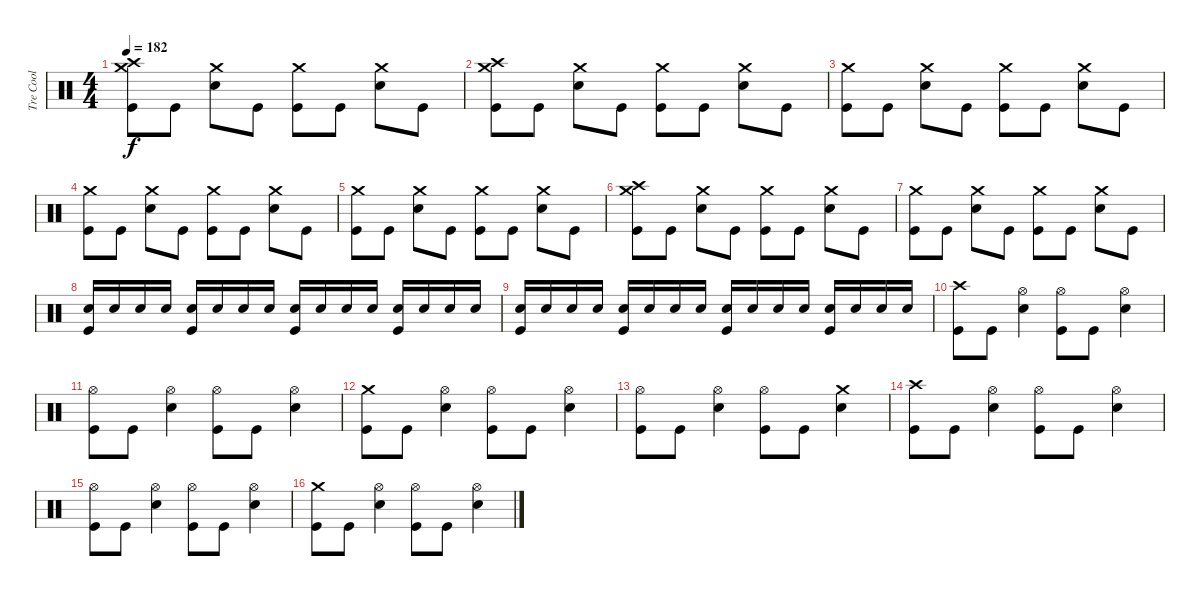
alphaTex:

\track ("Tre Cool" "Tre Cool") {instrument percussion}
\staff {score}
\articulation defaults
\ts (4 4)
\tempo 182
\clef neutral
\ks c
("Crash medium (hit)" "Crash high (hit)" "Kick (hit)").8{dy f} "Kick (hit)".8 ("Crash medium (hit)" "Snare (hit) 2").8 "Kick (hit)".8 ("Crash medium (hit)" "Kick (hit)").8 "Kick (hit)".8 ("Crash medium (hit)" "Snare (hit) 2").8 "Kick (hit)".8 |
("Crash medium (hit)" "Crash high (hit)" "Kick (hit)").8 "Kick (hit)".8 ("Crash medium (hit)" "Snare (hit) 2").8 "Kick (hit)".8 ("Crash medium (hit)" "Kick (hit)").8 "Kick (hit)".8 ("Crash medium (hit)" "Snare (hit) 2").8 "Kick (hit)".8 |
("Crash medium (hit)" "Kick (hit)").8 "Kick (hit)".8 ("Crash medium (hit)" "Snare (hit) 2").8 "Kick (hit)".8 ("Crash medium (hit)" "Kick (hit)").8 "Kick (hit)".8 ("Crash medium (hit)" "Snare (hit) 2").8 "Kick (hit)".8 |
("Crash medium (hit)" "Kick (hit)").8 "Kick (hit)".8 ("Crash medium (hit)" "Snare (hit) 2").8 "Kick (hit)".8 ("Crash medium (hit)" "Kick (hit)").8 "Kick (hit)".8 ("Crash medium (hit)" "Snare (hit) 2").8 "Kick (hit)".8 |
("Crash medium (hit)" "Kick (hit)").8 "Kick (hit)".8 ("Crash medium (hit)" "Snare (hit) 2").8 "Kick (hit)".8 ("Crash medium (hit)" "Kick (hit)").8 "Kick (hit)".8 ("Crash medium (hit)" "Snare (hit) 2").8 "Kick (hit)".8 |
("Crash medium (hit)" "Crash high (hit)" "Kick (hit)").8 "Kick (hit)".8 ("Crash medium (hit)" "Snare (hit) 2").8 "Kick (hit)".8 ("Crash medium (hit)" "Kick (hit)").8 "Kick (hit)".8 ("Crash medium (hit)" "Snare (hit) 2").8 "Kick (hit)".8 |
("Crash medium (hit)" "Kick (hit)").8 "Kick (hit)".8 ("Crash medium (hit)" "Snare (hit) 2").8 "Kick (hit)".8 ("Crash medium (hit)" "Kick (hit)").8 "Kick (hit)".8 ("Crash medium (hit)" "Snare (hit) 2").8 "Kick (hit)".8 |
("Snare (hit) 2" "Kick (hit)").16 "Snare (hit) 2".16 "Snare (hit) 2".16 "Snare (hit) 2".16 ("Snare (hit) 2" "Kick (hit)").16 "Snare (hit) 2".16 "Snare (hit) 2".16 "Snare (hit) 2".16 ("Snare (hit) 2" "Kick (hit)").16 "Snare (hit) 2".16 "Snare (hit) 2".16 "Snare (hit) 2".16 ("Snare (hit) 2" "Kick (hit)").16 "Snare (hit) 2".16 "Snare (hit) 2".16 "Snare (hit) 2".16 |
("Snare (hit) 2" "Kick (hit)").16 "Snare (hit) 2".16 "Snare (hit) 2".16 "Snare (hit) 2".16 ("Snare (hit) 2" "Kick (hit)").16 "Snare (hit) 2".16 "Snare (hit) 2".16 "Snare (hit) 2".16 ("Snare (hit) 2" "Kick (hit)").16 "Snare (hit) 2".16 "Snare (hit) 2".16 "Snare (hit) 2".16 ("Snare (hit) 2" "Kick (hit)").16 "Snare (hit) 2".16 "Snare (hit) 2".16 "Snare (hit) 2".16 |
("Crash high (hit)" "Kick (hit)").8 "Kick (hit)".8 ("Hi-Hat (open)" "Snare (hit) 2").4 ("Hi-Hat (open)" "Kick (hit)").8 "Kick (hit)".8 ("Hi-Hat (open)" "Snare (hit) 2").4 |
("Hi-Hat (open)" "Kick (hit)").8 "Kick (hit)".8 ("Hi-Hat (open)" "Snare (hit) 2").4 ("Hi-Hat (open)" "Kick (hit)").8 "Kick (hit)".8 ("Hi-Hat (open)" "Snare (hit) 2").4 |
("Crash medium (hit)" "Kick (hit)").8 "Kick (hit)".8 ("Hi-Hat (open)" "Snare (hit) 2").4 ("Hi-Hat (open)" "Kick (hit)").8 "Kick (hit)".8 ("Hi-Hat (open)" "Snare (hit) 2").4 |
("Hi-Hat (open)" "Kick (hit)").8 "Kick (hit)".8 ("Hi-Hat (open)" "Snare (hit) 2").4 ("Hi-Hat (open)" "Kick (hit)").8 "Kick (hit)".8 ("Crash medium (hit)" "Snare (hit) 2").4 |
("Crash high (hit)" "Kick (hit)").8 "Kick (hit)".8 ("Hi-Hat (open)" "Snare (hit) 2").4 ("Hi-Hat (open)" "Kick (hit)").8 "Kick (hit)".8 ("Hi-Hat (open)" "Snare (hit) 2").4 |
("Hi-Hat (open)" "Kick (hit)").8 "Kick (hit)".8 ("Hi-Hat (open)" "Snare (hit) 2").4 ("Hi-Hat (open)" "Kick (hit)").8 "Kick (hit)".8 ("Hi-Hat (open)" "Snare (hit) 2").4 |
("Crash medium (hit)" "Kick (hit)").8 "Kick (hit)".8 ("Hi-Hat (open)" "Snare (hit) 2").4 ("Hi-Hat (open)" "Kick (hit)").8 "Kick (hit)".8 ("Hi-Hat (open)" "Snare (hit) 2").4
